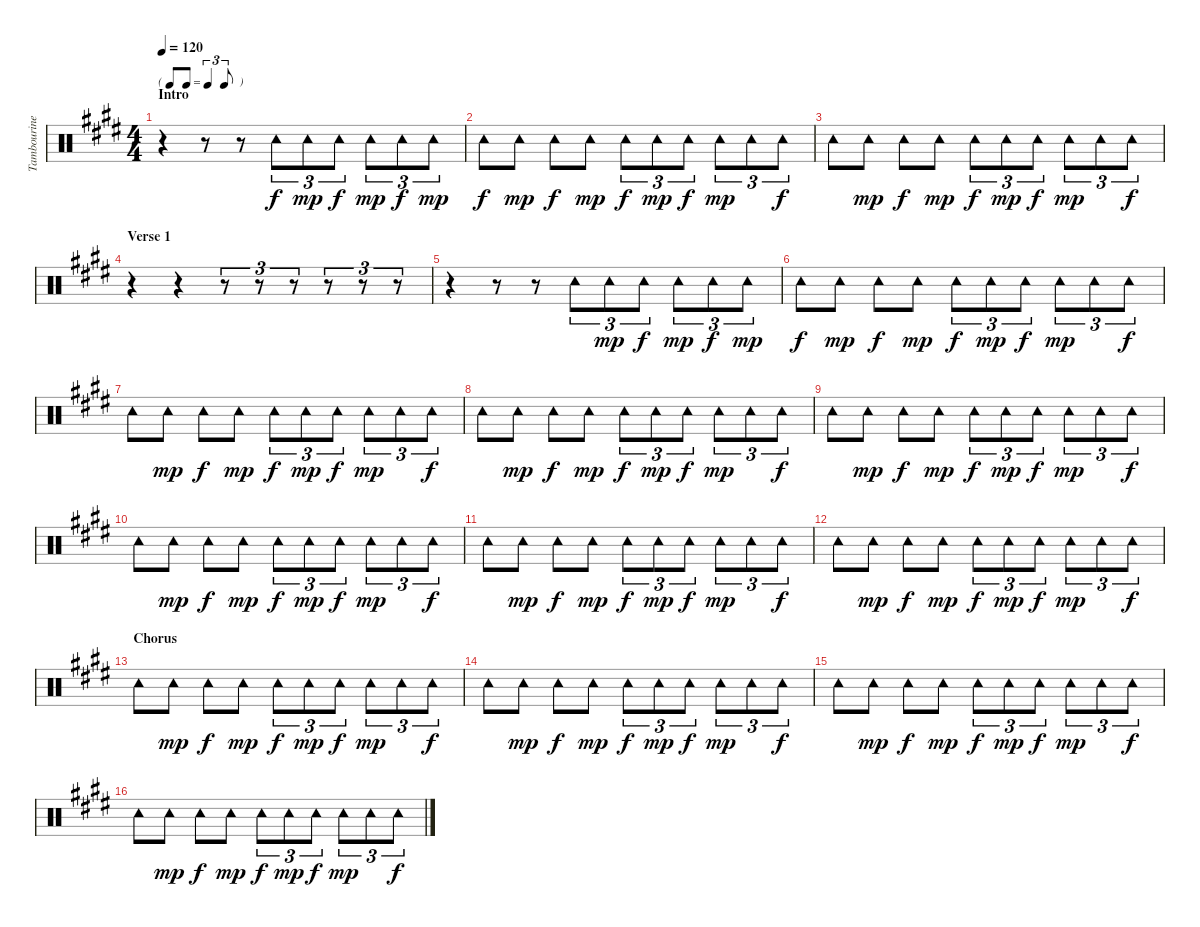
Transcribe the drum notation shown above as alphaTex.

\track ("Tambourine" "Tambourine") {instrument percussion}
\staff {score}
\articulation defaults
\ts (4 4)
\tf triplet8th
\section ("" "Intro")
\tempo 120
\clef neutral
\ks e
r.4{dy f} r.8 r.8 "Tambourine (hit)".8{tu (3 2)} "Tambourine (hit)".8{tu (3 2) dy mp} "Tambourine (hit)".8{tu (3 2) dy f} "Tambourine (hit)".8{tu (3 2) dy mp} "Tambourine (hit)".8{tu (3 2) dy f} "Tambourine (hit)".8{tu (3 2) dy mp} |
"Tambourine (hit)".8{dy f} "Tambourine (hit)".8{dy mp} "Tambourine (hit)".8{dy f} "Tambourine (hit)".8{dy mp} "Tambourine (hit)".8{tu (3 2) dy f} "Tambourine (hit)".8{tu (3 2) dy mp} "Tambourine (hit)".8{tu (3 2) dy f} "Tambourine (hit)".8{tu (3 2) dy mp} "Tambourine (hit)".8{tu (3 2)} "Tambourine (hit)".8{tu (3 2) dy f} |
"Tambourine (hit)".8 "Tambourine (hit)".8{dy mp} "Tambourine (hit)".8{dy f} "Tambourine (hit)".8{dy mp} "Tambourine (hit)".8{tu (3 2) dy f} "Tambourine (hit)".8{tu (3 2) dy mp} "Tambourine (hit)".8{tu (3 2) dy f} "Tambourine (hit)".8{tu (3 2) dy mp} "Tambourine (hit)".8{tu (3 2)} "Tambourine (hit)".8{tu (3 2) dy f} |
\section ("" "Verse 1")
r.4 r.4 r.8{tu (3 2)} r.8{tu (3 2)} r.8{tu (3 2)} r.8{tu (3 2)} r.8{tu (3 2)} r.8{tu (3 2)} |
r.4 r.8 r.8 "Tambourine (hit)".8{tu (3 2)} "Tambourine (hit)".8{tu (3 2) dy mp} "Tambourine (hit)".8{tu (3 2) dy f} "Tambourine (hit)".8{tu (3 2) dy mp} "Tambourine (hit)".8{tu (3 2) dy f} "Tambourine (hit)".8{tu (3 2) dy mp} |
"Tambourine (hit)".8{dy f} "Tambourine (hit)".8{dy mp} "Tambourine (hit)".8{dy f} "Tambourine (hit)".8{dy mp} "Tambourine (hit)".8{tu (3 2) dy f} "Tambourine (hit)".8{tu (3 2) dy mp} "Tambourine (hit)".8{tu (3 2) dy f} "Tambourine (hit)".8{tu (3 2) dy mp} "Tambourine (hit)".8{tu (3 2)} "Tambourine (hit)".8{tu (3 2) dy f} |
"Tambourine (hit)".8 "Tambourine (hit)".8{dy mp} "Tambourine (hit)".8{dy f} "Tambourine (hit)".8{dy mp} "Tambourine (hit)".8{tu (3 2) dy f} "Tambourine (hit)".8{tu (3 2) dy mp} "Tambourine (hit)".8{tu (3 2) dy f} "Tambourine (hit)".8{tu (3 2) dy mp} "Tambourine (hit)".8{tu (3 2)} "Tambourine (hit)".8{tu (3 2) dy f} |
"Tambourine (hit)".8 "Tambourine (hit)".8{dy mp} "Tambourine (hit)".8{dy f} "Tambourine (hit)".8{dy mp} "Tambourine (hit)".8{tu (3 2) dy f} "Tambourine (hit)".8{tu (3 2) dy mp} "Tambourine (hit)".8{tu (3 2) dy f} "Tambourine (hit)".8{tu (3 2) dy mp} "Tambourine (hit)".8{tu (3 2)} "Tambourine (hit)".8{tu (3 2) dy f} |
"Tambourine (hit)".8 "Tambourine (hit)".8{dy mp} "Tambourine (hit)".8{dy f} "Tambourine (hit)".8{dy mp} "Tambourine (hit)".8{tu (3 2) dy f} "Tambourine (hit)".8{tu (3 2) dy mp} "Tambourine (hit)".8{tu (3 2) dy f} "Tambourine (hit)".8{tu (3 2) dy mp} "Tambourine (hit)".8{tu (3 2)} "Tambourine (hit)".8{tu (3 2) dy f} |
"Tambourine (hit)".8 "Tambourine (hit)".8{dy mp} "Tambourine (hit)".8{dy f} "Tambourine (hit)".8{dy mp} "Tambourine (hit)".8{tu (3 2) dy f} "Tambourine (hit)".8{tu (3 2) dy mp} "Tambourine (hit)".8{tu (3 2) dy f} "Tambourine (hit)".8{tu (3 2) dy mp} "Tambourine (hit)".8{tu (3 2)} "Tambourine (hit)".8{tu (3 2) dy f} |
"Tambourine (hit)".8 "Tambourine (hit)".8{dy mp} "Tambourine (hit)".8{dy f} "Tambourine (hit)".8{dy mp} "Tambourine (hit)".8{tu (3 2) dy f} "Tambourine (hit)".8{tu (3 2) dy mp} "Tambourine (hit)".8{tu (3 2) dy f} "Tambourine (hit)".8{tu (3 2) dy mp} "Tambourine (hit)".8{tu (3 2)} "Tambourine (hit)".8{tu (3 2) dy f} |
"Tambourine (hit)".8 "Tambourine (hit)".8{dy mp} "Tambourine (hit)".8{dy f} "Tambourine (hit)".8{dy mp} "Tambourine (hit)".8{tu (3 2) dy f} "Tambourine (hit)".8{tu (3 2) dy mp} "Tambourine (hit)".8{tu (3 2) dy f} "Tambourine (hit)".8{tu (3 2) dy mp} "Tambourine (hit)".8{tu (3 2)} "Tambourine (hit)".8{tu (3 2) dy f} |
\section ("" "Chorus")
"Tambourine (hit)".8 "Tambourine (hit)".8{dy mp} "Tambourine (hit)".8{dy f} "Tambourine (hit)".8{dy mp} "Tambourine (hit)".8{tu (3 2) dy f} "Tambourine (hit)".8{tu (3 2) dy mp} "Tambourine (hit)".8{tu (3 2) dy f} "Tambourine (hit)".8{tu (3 2) dy mp} "Tambourine (hit)".8{tu (3 2)} "Tambourine (hit)".8{tu (3 2) dy f} |
"Tambourine (hit)".8 "Tambourine (hit)".8{dy mp} "Tambourine (hit)".8{dy f} "Tambourine (hit)".8{dy mp} "Tambourine (hit)".8{tu (3 2) dy f} "Tambourine (hit)".8{tu (3 2) dy mp} "Tambourine (hit)".8{tu (3 2) dy f} "Tambourine (hit)".8{tu (3 2) dy mp} "Tambourine (hit)".8{tu (3 2)} "Tambourine (hit)".8{tu (3 2) dy f} |
"Tambourine (hit)".8 "Tambourine (hit)".8{dy mp} "Tambourine (hit)".8{dy f} "Tambourine (hit)".8{dy mp} "Tambourine (hit)".8{tu (3 2) dy f} "Tambourine (hit)".8{tu (3 2) dy mp} "Tambourine (hit)".8{tu (3 2) dy f} "Tambourine (hit)".8{tu (3 2) dy mp} "Tambourine (hit)".8{tu (3 2)} "Tambourine (hit)".8{tu (3 2) dy f} |
"Tambourine (hit)".8 "Tambourine (hit)".8{dy mp} "Tambourine (hit)".8{dy f} "Tambourine (hit)".8{dy mp} "Tambourine (hit)".8{tu (3 2) dy f} "Tambourine (hit)".8{tu (3 2) dy mp} "Tambourine (hit)".8{tu (3 2) dy f} "Tambourine (hit)".8{tu (3 2) dy mp} "Tambourine (hit)".8{tu (3 2)} "Tambourine (hit)".8{tu (3 2) dy f}
